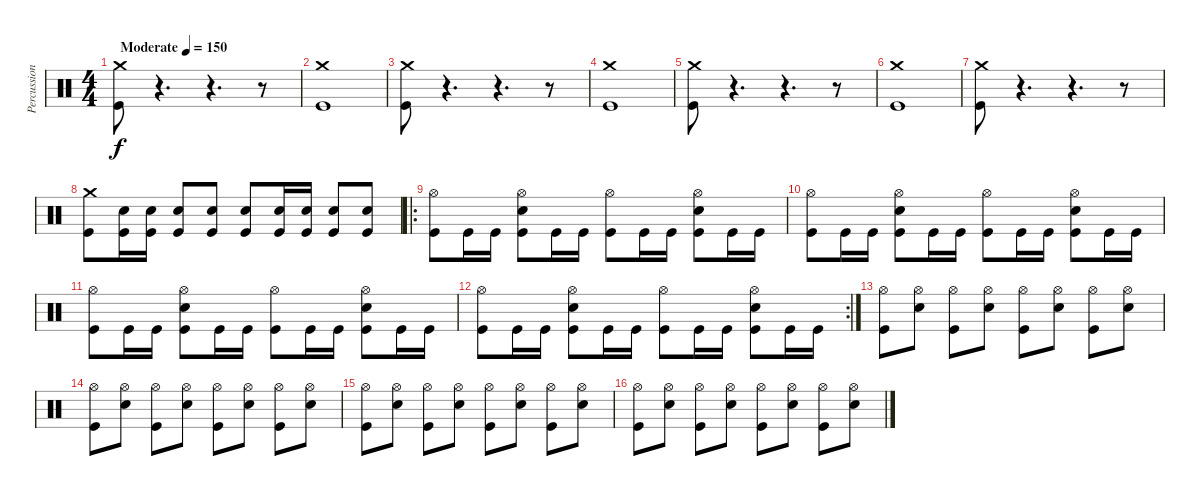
\track ("Percussion" "Percussion") {instrument percussion}
\staff {score}
\articulation defaults
\ts (4 4)
\tempo (150 "Moderate")
\clef neutral
\ks c
("Crash medium (hit)" "Kick (hit)").8{dy f} r.4{d volume 0} r.4{d} r.8{volume 13} |
("Crash medium (hit)" "Kick (hit)").1 |
("Crash medium (hit)" "Kick (hit)").8 r.4{d volume 0} r.4{d} r.8{volume 13} |
("Crash medium (hit)" "Kick (hit)").1 |
("Crash medium (hit)" "Kick (hit)").8 r.4{d volume 0} r.4{d} r.8{volume 13} |
("Crash medium (hit)" "Kick (hit)").1 |
("Crash medium (hit)" "Kick (hit)").8 r.4{d volume 0} r.4{d} r.8{volume 13} |
("Crash medium (hit)" "Kick (hit)").8 ("Snare (hit) 2" "Kick (hit)").16 ("Snare (hit) 2" "Kick (hit)").16 ("Snare (hit) 2" "Kick (hit)").8 ("Snare (hit) 2" "Kick (hit)").8 ("Snare (hit) 2" "Kick (hit)").8 ("Snare (hit) 2" "Kick (hit)").16 ("Snare (hit) 2" "Kick (hit)").16 ("Snare (hit) 2" "Kick (hit)").8 ("Snare (hit) 2" "Kick (hit)").8 |
\ro
("Hi-Hat (open)" "Kick (hit)").8 "Kick (hit)".16 "Kick (hit)".16 ("Hi-Hat (open)" "Snare (hit) 2" "Kick (hit)").8 "Kick (hit)".16 "Kick (hit)".16 ("Hi-Hat (open)" "Kick (hit)").8 "Kick (hit)".16 "Kick (hit)".16 ("Hi-Hat (open)" "Snare (hit) 2" "Kick (hit)").8 "Kick (hit)".16 "Kick (hit)".16 |
("Hi-Hat (open)" "Kick (hit)").8 "Kick (hit)".16 "Kick (hit)".16 ("Hi-Hat (open)" "Snare (hit) 2" "Kick (hit)").8 "Kick (hit)".16 "Kick (hit)".16 ("Hi-Hat (open)" "Kick (hit)").8 "Kick (hit)".16 "Kick (hit)".16 ("Hi-Hat (open)" "Snare (hit) 2" "Kick (hit)").8 "Kick (hit)".16 "Kick (hit)".16 |
("Hi-Hat (open)" "Kick (hit)").8 "Kick (hit)".16 "Kick (hit)".16 ("Hi-Hat (open)" "Snare (hit) 2" "Kick (hit)").8 "Kick (hit)".16 "Kick (hit)".16 ("Hi-Hat (open)" "Kick (hit)").8 "Kick (hit)".16 "Kick (hit)".16 ("Hi-Hat (open)" "Snare (hit) 2" "Kick (hit)").8 "Kick (hit)".16 "Kick (hit)".16 |
\rc 2
("Hi-Hat (open)" "Kick (hit)").8 "Kick (hit)".16 "Kick (hit)".16 ("Hi-Hat (open)" "Snare (hit) 2" "Kick (hit)").8 "Kick (hit)".16 "Kick (hit)".16 ("Hi-Hat (open)" "Kick (hit)").8 "Kick (hit)".16 "Kick (hit)".16 ("Hi-Hat (open)" "Snare (hit) 2" "Kick (hit)").8 "Kick (hit)".16 "Kick (hit)".16 |
("Hi-Hat (open)" "Kick (hit)").8 ("Hi-Hat (open)" "Snare (hit) 2").8 ("Hi-Hat (open)" "Kick (hit)").8 ("Hi-Hat (open)" "Snare (hit) 2").8 ("Hi-Hat (open)" "Kick (hit)").8 ("Hi-Hat (open)" "Snare (hit) 2").8 ("Hi-Hat (open)" "Kick (hit)").8 ("Hi-Hat (open)" "Snare (hit) 2").8 |
("Hi-Hat (open)" "Kick (hit)").8 ("Hi-Hat (open)" "Snare (hit) 2").8 ("Hi-Hat (open)" "Kick (hit)").8 ("Hi-Hat (open)" "Snare (hit) 2").8 ("Hi-Hat (open)" "Kick (hit)").8 ("Hi-Hat (open)" "Snare (hit) 2").8 ("Hi-Hat (open)" "Kick (hit)").8 ("Hi-Hat (open)" "Snare (hit) 2").8 |
("Hi-Hat (open)" "Kick (hit)").8 ("Hi-Hat (open)" "Snare (hit) 2").8 ("Hi-Hat (open)" "Kick (hit)").8 ("Hi-Hat (open)" "Snare (hit) 2").8 ("Hi-Hat (open)" "Kick (hit)").8 ("Hi-Hat (open)" "Snare (hit) 2").8 ("Hi-Hat (open)" "Kick (hit)").8 ("Hi-Hat (open)" "Snare (hit) 2").8 |
("Hi-Hat (open)" "Kick (hit)").8 ("Hi-Hat (open)" "Snare (hit) 2").8 ("Hi-Hat (open)" "Kick (hit)").8 ("Hi-Hat (open)" "Snare (hit) 2").8 ("Hi-Hat (open)" "Kick (hit)").8 ("Hi-Hat (open)" "Snare (hit) 2").8 ("Hi-Hat (open)" "Kick (hit)").8 ("Hi-Hat (open)" "Snare (hit) 2").8
